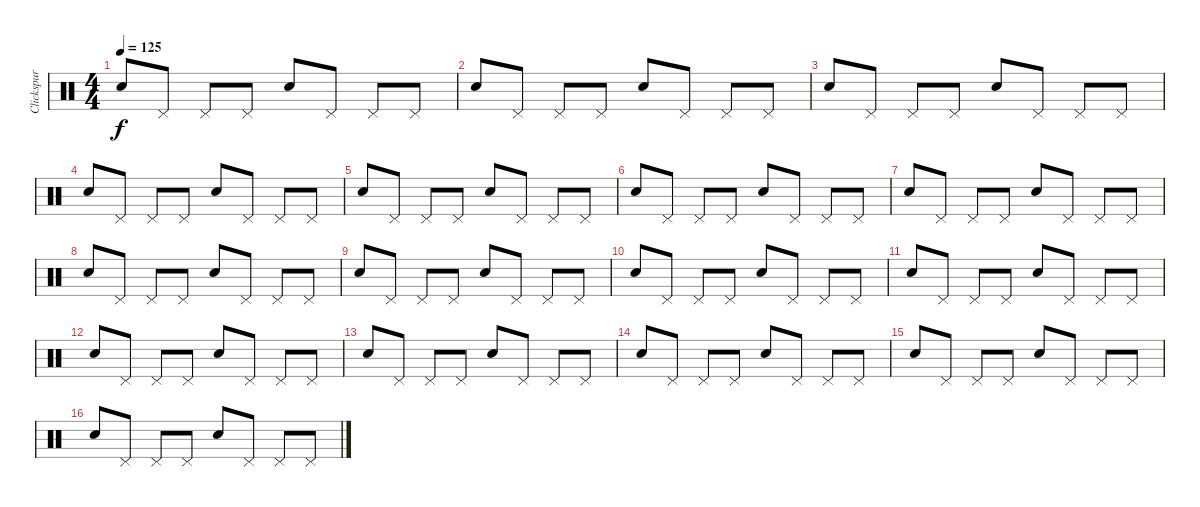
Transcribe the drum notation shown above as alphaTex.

\track ("Clickspur" "Clickspur") {instrument percussion}
\staff {score}
\articulation defaults
\ts (4 4)
\tempo 125
\clef neutral
\ks c "Electric Snare (hit)".8{dy f} "Pedal Hi-Hat (hit)".8 "Pedal Hi-Hat (hit)".8 "Pedal Hi-Hat (hit)".8 "Electric Snare (hit)".8 "Pedal Hi-Hat (hit)".8 "Pedal Hi-Hat (hit)".8 "Pedal Hi-Hat (hit)".8
|
"Electric Snare (hit)".8 "Pedal Hi-Hat (hit)".8 "Pedal Hi-Hat (hit)".8 "Pedal Hi-Hat (hit)".8 "Electric Snare (hit)".8 "Pedal Hi-Hat (hit)".8 "Pedal Hi-Hat (hit)".8 "Pedal Hi-Hat (hit)".8 |
"Electric Snare (hit)".8 "Pedal Hi-Hat (hit)".8 "Pedal Hi-Hat (hit)".8 "Pedal Hi-Hat (hit)".8 "Electric Snare (hit)".8 "Pedal Hi-Hat (hit)".8 "Pedal Hi-Hat (hit)".8 "Pedal Hi-Hat (hit)".8 |
"Electric Snare (hit)".8 "Pedal Hi-Hat (hit)".8 "Pedal Hi-Hat (hit)".8 "Pedal Hi-Hat (hit)".8 "Electric Snare (hit)".8 "Pedal Hi-Hat (hit)".8 "Pedal Hi-Hat (hit)".8 "Pedal Hi-Hat (hit)".8 |
"Electric Snare (hit)".8 "Pedal Hi-Hat (hit)".8 "Pedal Hi-Hat (hit)".8 "Pedal Hi-Hat (hit)".8 "Electric Snare (hit)".8 "Pedal Hi-Hat (hit)".8 "Pedal Hi-Hat (hit)".8 "Pedal Hi-Hat (hit)".8 |
"Electric Snare (hit)".8 "Pedal Hi-Hat (hit)".8 "Pedal Hi-Hat (hit)".8 "Pedal Hi-Hat (hit)".8 "Electric Snare (hit)".8 "Pedal Hi-Hat (hit)".8 "Pedal Hi-Hat (hit)".8 "Pedal Hi-Hat (hit)".8 |
"Electric Snare (hit)".8 "Pedal Hi-Hat (hit)".8 "Pedal Hi-Hat (hit)".8 "Pedal Hi-Hat (hit)".8 "Electric Snare (hit)".8 "Pedal Hi-Hat (hit)".8 "Pedal Hi-Hat (hit)".8 "Pedal Hi-Hat (hit)".8 |
"Electric Snare (hit)".8 "Pedal Hi-Hat (hit)".8 "Pedal Hi-Hat (hit)".8 "Pedal Hi-Hat (hit)".8 "Electric Snare (hit)".8 "Pedal Hi-Hat (hit)".8 "Pedal Hi-Hat (hit)".8 "Pedal Hi-Hat (hit)".8 |
"Electric Snare (hit)".8 "Pedal Hi-Hat (hit)".8 "Pedal Hi-Hat (hit)".8 "Pedal Hi-Hat (hit)".8 "Electric Snare (hit)".8 "Pedal Hi-Hat (hit)".8 "Pedal Hi-Hat (hit)".8 "Pedal Hi-Hat (hit)".8 |
"Electric Snare (hit)".8 "Pedal Hi-Hat (hit)".8 "Pedal Hi-Hat (hit)".8 "Pedal Hi-Hat (hit)".8 "Electric Snare (hit)".8 "Pedal Hi-Hat (hit)".8 "Pedal Hi-Hat (hit)".8 "Pedal Hi-Hat (hit)".8 |
"Electric Snare (hit)".8 "Pedal Hi-Hat (hit)".8 "Pedal Hi-Hat (hit)".8 "Pedal Hi-Hat (hit)".8 "Electric Snare (hit)".8 "Pedal Hi-Hat (hit)".8 "Pedal Hi-Hat (hit)".8 "Pedal Hi-Hat (hit)".8 |
"Electric Snare (hit)".8 "Pedal Hi-Hat (hit)".8 "Pedal Hi-Hat (hit)".8 "Pedal Hi-Hat (hit)".8 "Electric Snare (hit)".8 "Pedal Hi-Hat (hit)".8 "Pedal Hi-Hat (hit)".8 "Pedal Hi-Hat (hit)".8 |
"Electric Snare (hit)".8 "Pedal Hi-Hat (hit)".8 "Pedal Hi-Hat (hit)".8 "Pedal Hi-Hat (hit)".8 "Electric Snare (hit)".8 "Pedal Hi-Hat (hit)".8 "Pedal Hi-Hat (hit)".8 "Pedal Hi-Hat (hit)".8 |
"Electric Snare (hit)".8 "Pedal Hi-Hat (hit)".8 "Pedal Hi-Hat (hit)".8 "Pedal Hi-Hat (hit)".8 "Electric Snare (hit)".8 "Pedal Hi-Hat (hit)".8 "Pedal Hi-Hat (hit)".8 "Pedal Hi-Hat (hit)".8 |
"Electric Snare (hit)".8 "Pedal Hi-Hat (hit)".8 "Pedal Hi-Hat (hit)".8 "Pedal Hi-Hat (hit)".8 "Electric Snare (hit)".8 "Pedal Hi-Hat (hit)".8 "Pedal Hi-Hat (hit)".8 "Pedal Hi-Hat (hit)".8 |
"Electric Snare (hit)".8 "Pedal Hi-Hat (hit)".8 "Pedal Hi-Hat (hit)".8 "Pedal Hi-Hat (hit)".8 "Electric Snare (hit)".8 "Pedal Hi-Hat (hit)".8 "Pedal Hi-Hat (hit)".8 "Pedal Hi-Hat (hit)".8
